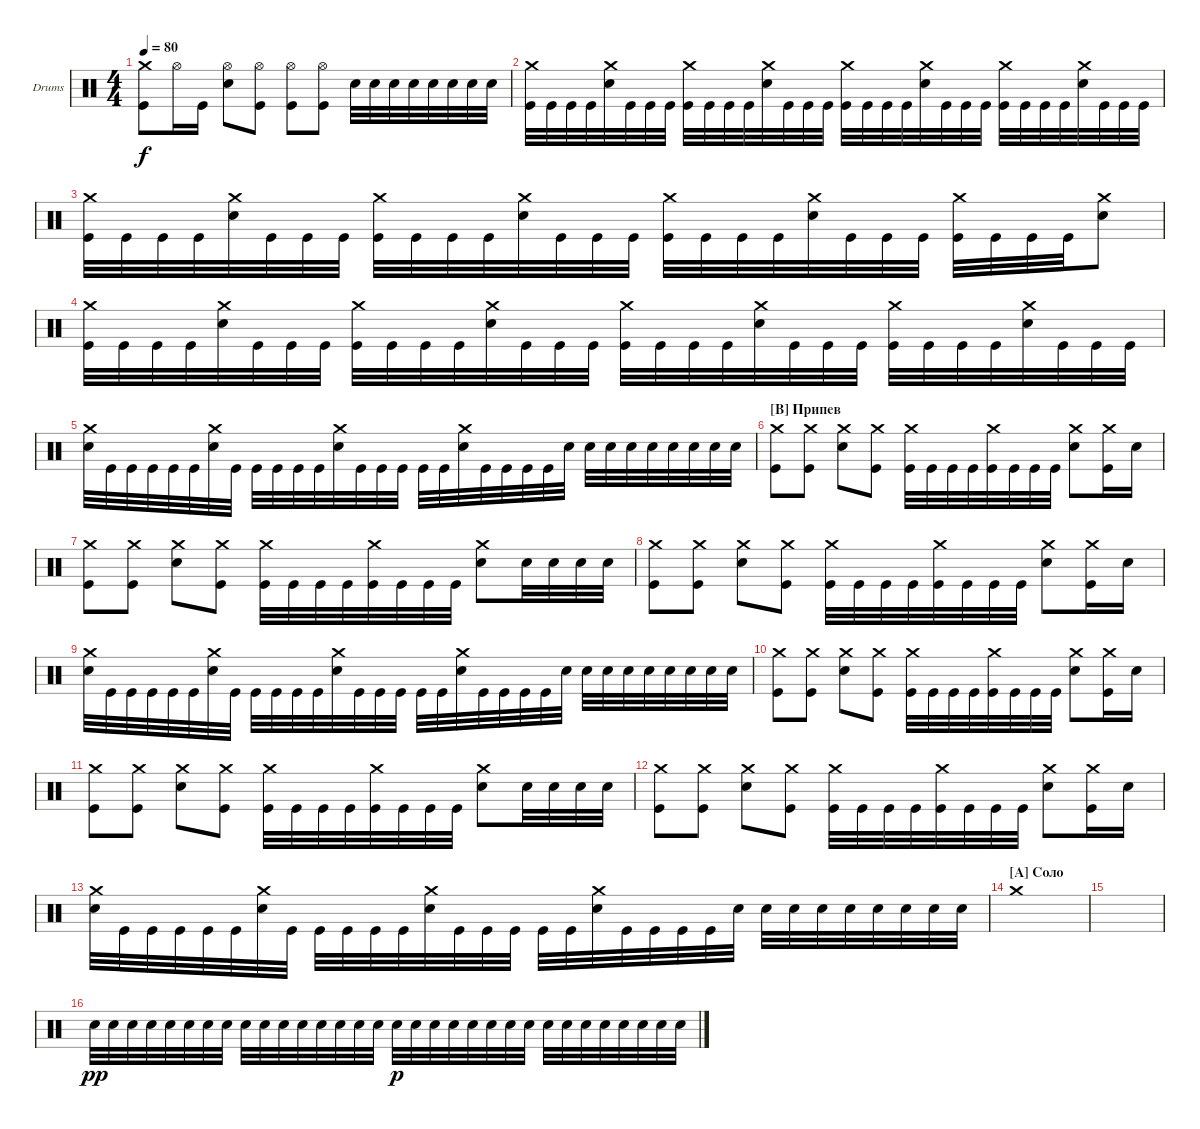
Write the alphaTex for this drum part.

\defaultSystemsLayout 4
\bracketExtendMode groupsimilarinstruments
\firstSystemTrackNameOrientation horizontal
\otherSystemsTrackNameOrientation horizontal
\track ("Drumkit" "Drums") {instrument percussion}
\staff {score}
\articulation defaults
\ts (4 4)
\tempo 80
\clef neutral
\ks c
("Crash medium (hit)" "Kick (hit)").8{dy f} "Hi-Hat (open)".16 "Kick (hit)".16 ("Snare (hit) 2" "Hi-Hat (open)").8 ("Kick (hit)" "Hi-Hat (open)").8 ("Kick (hit)" "Hi-Hat (open)").8 ("Kick (hit)" "Hi-Hat (open)").8 "Snare (hit) 2".32 "Snare (hit) 2".32 "Snare (hit) 2".32 "Snare (hit) 2".32 "Snare (hit) 2".32 "Snare (hit) 2".32 "Snare (hit) 2".32 "Snare (hit) 2".32 |
("Crash medium (hit)" "Kick (hit)").32 "Kick (hit)".32 "Kick (hit)".32 "Kick (hit)".32 ("Snare (hit) 2" "Crash medium (hit)").32 "Kick (hit)".32 "Kick (hit)".32 "Kick (hit)".32 ("Crash medium (hit)" "Kick (hit)").32 "Kick (hit)".32 "Kick (hit)".32 "Kick (hit)".32 ("Snare (hit) 2" "Crash medium (hit)").32 "Kick (hit)".32 "Kick (hit)".32 "Kick (hit)".32 ("Crash medium (hit)" "Kick (hit)").32 "Kick (hit)".32 "Kick (hit)".32 "Kick (hit)".32 ("Snare (hit) 2" "Crash medium (hit)").32 "Kick (hit)".32 "Kick (hit)".32 "Kick (hit)".32 ("Crash medium (hit)" "Kick (hit)").32 "Kick (hit)".32 "Kick (hit)".32 "Kick (hit)".32 ("Snare (hit) 2" "Crash medium (hit)").32 "Kick (hit)".32 "Kick (hit)".32 "Kick (hit)".32 |
("Crash medium (hit)" "Kick (hit)").32 "Kick (hit)".32 "Kick (hit)".32 "Kick (hit)".32 ("Snare (hit) 2" "Crash medium (hit)").32 "Kick (hit)".32 "Kick (hit)".32 "Kick (hit)".32 ("Crash medium (hit)" "Kick (hit)").32 "Kick (hit)".32 "Kick (hit)".32 "Kick (hit)".32 ("Snare (hit) 2" "Crash medium (hit)").32 "Kick (hit)".32 "Kick (hit)".32 "Kick (hit)".32 ("Crash medium (hit)" "Kick (hit)").32 "Kick (hit)".32 "Kick (hit)".32 "Kick (hit)".32 ("Snare (hit) 2" "Crash medium (hit)").32 "Kick (hit)".32 "Kick (hit)".32 "Kick (hit)".32 ("Crash medium (hit)" "Kick (hit)").32 "Kick (hit)".32 "Kick (hit)".32 "Kick (hit)".32 ("Snare (hit) 2" "Crash medium (hit)").8 |
("Crash medium (hit)" "Kick (hit)").32 "Kick (hit)".32 "Kick (hit)".32 "Kick (hit)".32 ("Snare (hit) 2" "Crash medium (hit)").32 "Kick (hit)".32 "Kick (hit)".32 "Kick (hit)".32 ("Crash medium (hit)" "Kick (hit)").32 "Kick (hit)".32 "Kick (hit)".32 "Kick (hit)".32 ("Snare (hit) 2" "Crash medium (hit)").32 "Kick (hit)".32 "Kick (hit)".32 "Kick (hit)".32 ("Crash medium (hit)" "Kick (hit)").32 "Kick (hit)".32 "Kick (hit)".32 "Kick (hit)".32 ("Snare (hit) 2" "Crash medium (hit)").32 "Kick (hit)".32 "Kick (hit)".32 "Kick (hit)".32 ("Crash medium (hit)" "Kick (hit)").32 "Kick (hit)".32 "Kick (hit)".32 "Kick (hit)".32 ("Snare (hit) 2" "Crash medium (hit)").32 "Kick (hit)".32 "Kick (hit)".32 "Kick (hit)".32 |
("Crash medium (hit)" "Snare (hit) 2").32 "Kick (hit)".32 "Kick (hit)".32 "Kick (hit)".32 "Kick (hit)".32 "Kick (hit)".32 ("Crash medium (hit)" "Snare (hit) 2").32 "Kick (hit)".32 "Kick (hit)".32 "Kick (hit)".32 "Kick (hit)".32 "Kick (hit)".32 ("Crash medium (hit)" "Snare (hit) 2").32 "Kick (hit)".32 "Kick (hit)".32 "Kick (hit)".32 "Kick (hit)".32 "Kick (hit)".32 ("Crash medium (hit)" "Snare (hit) 2").32 "Kick (hit)".32 "Kick (hit)".32 "Kick (hit)".32 "Kick (hit)".32 "Snare (hit) 2".32 "Snare (hit) 2".32 "Snare (hit) 2".32 "Snare (hit) 2".32 "Snare (hit) 2".32 "Snare (hit) 2".32 "Snare (hit) 2".32 "Snare (hit) 2".32 "Snare (hit) 2".32 |
\section ("B" "Припев")
("Kick (hit)" "Crash medium (hit)").8 ("Kick (hit)" "Crash medium (hit)").8 ("Snare (hit) 2" "Crash medium (hit)").8 ("Kick (hit)" "Crash medium (hit)").8 ("Kick (hit)" "Crash medium (hit)").32 "Kick (hit)".32 "Kick (hit)".32 "Kick (hit)".32 ("Kick (hit)" "Crash medium (hit)").32 "Kick (hit)".32 "Kick (hit)".32 "Kick (hit)".32 ("Snare (hit) 2" "Crash medium (hit)").8 ("Kick (hit)" "Crash medium (hit)").16 "Snare (hit) 2".16 |
("Kick (hit)" "Crash medium (hit)").8 ("Kick (hit)" "Crash medium (hit)").8 ("Snare (hit) 2" "Crash medium (hit)").8 ("Kick (hit)" "Crash medium (hit)").8 ("Kick (hit)" "Crash medium (hit)").32 "Kick (hit)".32 "Kick (hit)".32 "Kick (hit)".32 ("Kick (hit)" "Crash medium (hit)").32 "Kick (hit)".32 "Kick (hit)".32 "Kick (hit)".32 ("Snare (hit) 2" "Crash medium (hit)").8 "Snare (hit) 2".32 "Snare (hit) 2".32 "Snare (hit) 2".32 "Snare (hit) 2".32 |
("Kick (hit)" "Crash medium (hit)").8 ("Kick (hit)" "Crash medium (hit)").8 ("Snare (hit) 2" "Crash medium (hit)").8 ("Kick (hit)" "Crash medium (hit)").8 ("Kick (hit)" "Crash medium (hit)").32 "Kick (hit)".32 "Kick (hit)".32 "Kick (hit)".32 ("Kick (hit)" "Crash medium (hit)").32 "Kick (hit)".32 "Kick (hit)".32 "Kick (hit)".32 ("Snare (hit) 2" "Crash medium (hit)").8 ("Kick (hit)" "Crash medium (hit)").16 "Snare (hit) 2".16 |
("Crash medium (hit)" "Snare (hit) 2").32 "Kick (hit)".32 "Kick (hit)".32 "Kick (hit)".32 "Kick (hit)".32 "Kick (hit)".32 ("Crash medium (hit)" "Snare (hit) 2").32 "Kick (hit)".32 "Kick (hit)".32 "Kick (hit)".32 "Kick (hit)".32 "Kick (hit)".32 ("Crash medium (hit)" "Snare (hit) 2").32 "Kick (hit)".32 "Kick (hit)".32 "Kick (hit)".32 "Kick (hit)".32 "Kick (hit)".32 ("Crash medium (hit)" "Snare (hit) 2").32 "Kick (hit)".32 "Kick (hit)".32 "Kick (hit)".32 "Kick (hit)".32 "Snare (hit) 2".32 "Snare (hit) 2".32 "Snare (hit) 2".32 "Snare (hit) 2".32 "Snare (hit) 2".32 "Snare (hit) 2".32 "Snare (hit) 2".32 "Snare (hit) 2".32 "Snare (hit) 2".32 |
("Kick (hit)" "Crash medium (hit)").8 ("Kick (hit)" "Crash medium (hit)").8 ("Snare (hit) 2" "Crash medium (hit)").8 ("Kick (hit)" "Crash medium (hit)").8 ("Kick (hit)" "Crash medium (hit)").32 "Kick (hit)".32 "Kick (hit)".32 "Kick (hit)".32 ("Kick (hit)" "Crash medium (hit)").32 "Kick (hit)".32 "Kick (hit)".32 "Kick (hit)".32 ("Snare (hit) 2" "Crash medium (hit)").8 ("Kick (hit)" "Crash medium (hit)").16 "Snare (hit) 2".16 |
("Kick (hit)" "Crash medium (hit)").8 ("Kick (hit)" "Crash medium (hit)").8 ("Snare (hit) 2" "Crash medium (hit)").8 ("Kick (hit)" "Crash medium (hit)").8 ("Kick (hit)" "Crash medium (hit)").32 "Kick (hit)".32 "Kick (hit)".32 "Kick (hit)".32 ("Kick (hit)" "Crash medium (hit)").32 "Kick (hit)".32 "Kick (hit)".32 "Kick (hit)".32 ("Snare (hit) 2" "Crash medium (hit)").8 "Snare (hit) 2".32 "Snare (hit) 2".32 "Snare (hit) 2".32 "Snare (hit) 2".32 |
("Kick (hit)" "Crash medium (hit)").8 ("Kick (hit)" "Crash medium (hit)").8 ("Snare (hit) 2" "Crash medium (hit)").8 ("Kick (hit)" "Crash medium (hit)").8 ("Kick (hit)" "Crash medium (hit)").32 "Kick (hit)".32 "Kick (hit)".32 "Kick (hit)".32 ("Kick (hit)" "Crash medium (hit)").32 "Kick (hit)".32 "Kick (hit)".32 "Kick (hit)".32 ("Snare (hit) 2" "Crash medium (hit)").8 ("Kick (hit)" "Crash medium (hit)").16 "Snare (hit) 2".16 |
("Crash medium (hit)" "Snare (hit) 2").32 "Kick (hit)".32 "Kick (hit)".32 "Kick (hit)".32 "Kick (hit)".32 "Kick (hit)".32 ("Crash medium (hit)" "Snare (hit) 2").32 "Kick (hit)".32 "Kick (hit)".32 "Kick (hit)".32 "Kick (hit)".32 "Kick (hit)".32 ("Crash medium (hit)" "Snare (hit) 2").32 "Kick (hit)".32 "Kick (hit)".32 "Kick (hit)".32 "Kick (hit)".32 "Kick (hit)".32 ("Crash medium (hit)" "Snare (hit) 2").32 "Kick (hit)".32 "Kick (hit)".32 "Kick (hit)".32 "Kick (hit)".32 "Snare (hit) 2".32 "Snare (hit) 2".32 "Snare (hit) 2".32 "Snare (hit) 2".32 "Snare (hit) 2".32 "Snare (hit) 2".32 "Snare (hit) 2".32 "Snare (hit) 2".32 "Snare (hit) 2".32 |
\section ("A" "Соло")
"Crash medium (hit)".1 |
|
"Snare (hit) 2".32{dy pp} "Snare (hit) 2".32 "Snare (hit) 2".32 "Snare (hit) 2".32 "Snare (hit) 2".32 "Snare (hit) 2".32 "Snare (hit) 2".32 "Snare (hit) 2".32 "Snare (hit) 2".32 "Snare (hit) 2".32 "Snare (hit) 2".32 "Snare (hit) 2".32 "Snare (hit) 2".32 "Snare (hit) 2".32 "Snare (hit) 2".32 "Snare (hit) 2".32 "Snare (hit) 2".32{dy p} "Snare (hit) 2".32 "Snare (hit) 2".32 "Snare (hit) 2".32 "Snare (hit) 2".32 "Snare (hit) 2".32 "Snare (hit) 2".32 "Snare (hit) 2".32 "Snare (hit) 2".32 "Snare (hit) 2".32 "Snare (hit) 2".32 "Snare (hit) 2".32 "Snare (hit) 2".32 "Snare (hit) 2".32 "Snare (hit) 2".32 "Snare (hit) 2".32
